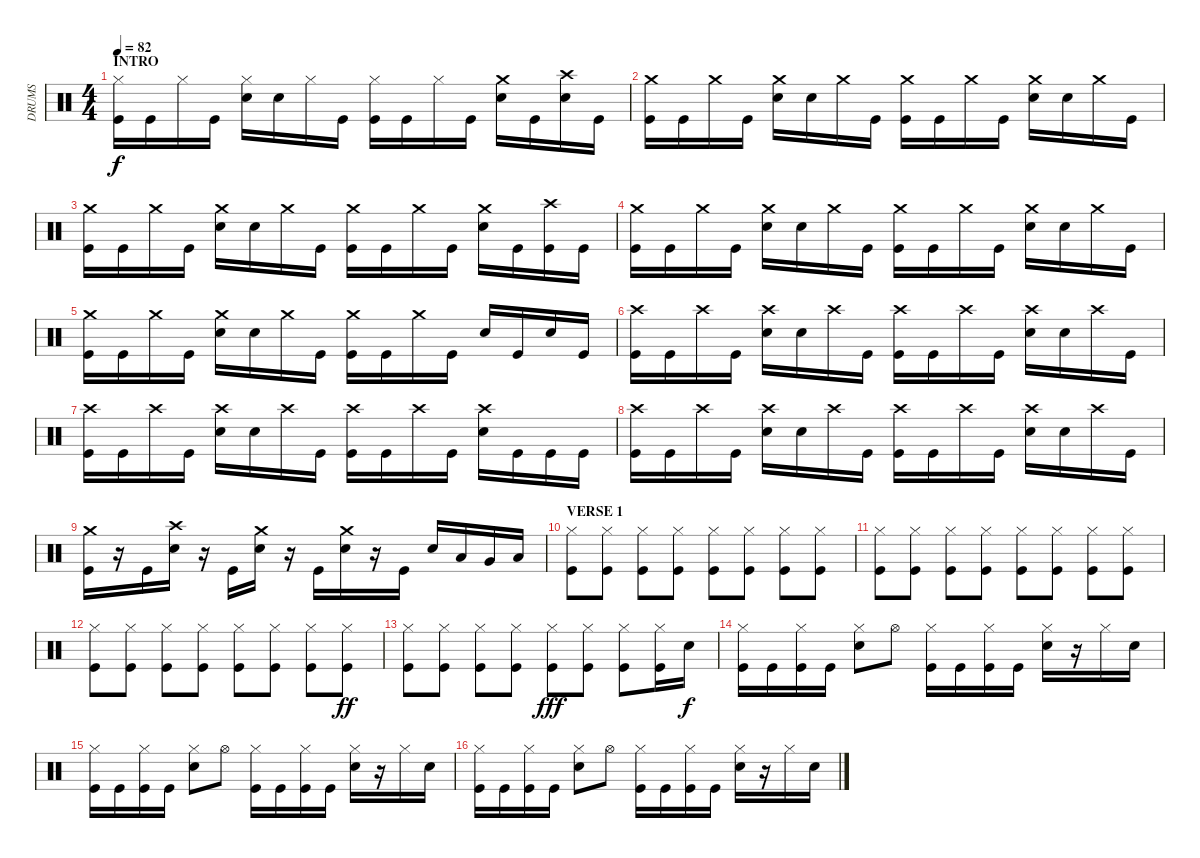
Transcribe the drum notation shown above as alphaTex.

\track ("DRUMS" "DRUMS") {instrument percussion}
\staff {score}
\articulation defaults
\ts (4 4)
\section ("" "INTRO")
\tempo 82
\clef neutral
\ks c
("Hi-Hat (closed)" "Kick (hit)").16{dy f} "Kick (hit)".16 "Hi-Hat (closed)".16 "Kick (hit)".16 ("Hi-Hat (closed)" "Electric Snare (hit)").16 "Electric Snare (hit)".16 "Hi-Hat (closed)".16 "Kick (hit)".16 ("Hi-Hat (closed)" "Kick (hit)").16 "Kick (hit)".16 "Hi-Hat (closed)".16 "Kick (hit)".16 ("Crash medium (hit)" "Electric Snare (hit)").16 "Kick (hit)".16 ("Crash high (hit)" "Electric Snare (hit)").16 "Kick (hit)".16 |
("Crash medium (hit)" "Kick (hit)").16 "Kick (hit)".16 "Crash medium (hit)".16 "Kick (hit)".16 ("Crash medium (hit)" "Electric Snare (hit)").16 "Electric Snare (hit)".16 "Crash medium (hit)".16 "Kick (hit)".16 ("Crash medium (hit)" "Kick (hit)").16 "Kick (hit)".16 "Crash medium (hit)".16 "Kick (hit)".16 ("Crash medium (hit)" "Electric Snare (hit)").16 "Electric Snare (hit)".16 "Crash medium (hit)".16 "Kick (hit)".16 |
("Crash medium (hit)" "Kick (hit)").16 "Kick (hit)".16 "Crash medium (hit)".16 "Kick (hit)".16 ("Crash medium (hit)" "Electric Snare (hit)").16 "Electric Snare (hit)".16 "Crash medium (hit)".16 "Kick (hit)".16 ("Crash medium (hit)" "Kick (hit)").16 "Kick (hit)".16 "Crash medium (hit)".16 "Kick (hit)".16 ("Crash medium (hit)" "Electric Snare (hit)").16 "Kick (hit)".16 ("Crash high (hit)" "Kick (hit)").16 "Kick (hit)".16 |
("Crash medium (hit)" "Kick (hit)").16 "Kick (hit)".16 "Crash medium (hit)".16 "Kick (hit)".16 ("Crash medium (hit)" "Electric Snare (hit)").16 "Electric Snare (hit)".16 "Crash medium (hit)".16 "Kick (hit)".16 ("Crash medium (hit)" "Kick (hit)").16 "Kick (hit)".16 "Crash medium (hit)".16 "Kick (hit)".16 ("Crash medium (hit)" "Electric Snare (hit)").16 "Electric Snare (hit)".16 "Crash medium (hit)".16 "Kick (hit)".16 |
("Crash medium (hit)" "Kick (hit)").16 "Kick (hit)".16 "Crash medium (hit)".16 "Kick (hit)".16 ("Crash medium (hit)" "Electric Snare (hit)").16 "Electric Snare (hit)".16 "Crash medium (hit)".16 "Kick (hit)".16 ("Crash medium (hit)" "Kick (hit)").16 "Kick (hit)".16 "Crash medium (hit)".16 "Kick (hit)".16 "Electric Snare (hit)".16 "Kick (hit)".16 "Electric Snare (hit)".16 "Kick (hit)".16 |
("Crash high (hit)" "Kick (hit)").16 "Kick (hit)".16 "Crash high (hit)".16 "Kick (hit)".16 ("Crash high (hit)" "Electric Snare (hit)").16 "Electric Snare (hit)".16 "Crash high (hit)".16 "Kick (hit)".16 ("Crash high (hit)" "Kick (hit)").16 "Kick (hit)".16 "Crash high (hit)".16 "Kick (hit)".16 ("Crash high (hit)" "Electric Snare (hit)").16 "Electric Snare (hit)".16 "Crash high (hit)".16 "Kick (hit)".16 |
("Crash high (hit)" "Kick (hit)").16 "Kick (hit)".16 "Crash high (hit)".16 "Kick (hit)".16 ("Crash high (hit)" "Electric Snare (hit)").16 "Electric Snare (hit)".16 "Crash high (hit)".16 "Kick (hit)".16 ("Crash high (hit)" "Kick (hit)").16 "Kick (hit)".16 "Crash high (hit)".16 "Kick (hit)".16 ("Crash high (hit)" "Electric Snare (hit)").16 "Kick (hit)".16 "Kick (hit)".16 "Kick (hit)".16 |
("Crash high (hit)" "Kick (hit)").16 "Kick (hit)".16 "Crash high (hit)".16 "Kick (hit)".16 ("Crash high (hit)" "Electric Snare (hit)").16 "Electric Snare (hit)".16 "Crash high (hit)".16 "Kick (hit)".16 ("Crash high (hit)" "Kick (hit)").16 "Kick (hit)".16 "Crash high (hit)".16 "Kick (hit)".16 ("Crash high (hit)" "Electric Snare (hit)").16 "Electric Snare (hit)".16 "Crash high (hit)".16 "Kick (hit)".16 |
("Crash medium (hit)" "Kick (hit)").16 r.16 "Kick (hit)".16 ("Crash high (hit)" "Electric Snare (hit)").16 r.16 "Kick (hit)".16 ("Crash medium (hit)" "Electric Snare (hit)").16 r.16 "Kick (hit)".16 ("Crash medium (hit)" "Electric Snare (hit)").16 r.16 "Kick (hit)".16 "Electric Snare (hit)".16 "Low Tom (hit)".16 "Very Low Tom (hit)".16 "Low Floor Tom (hit)".16 |
\section ("" "VERSE 1")
("Hi-Hat (closed)" "Kick (hit)").8 ("Hi-Hat (closed)" "Kick (hit)").8 ("Hi-Hat (closed)" "Kick (hit)").8 ("Hi-Hat (closed)" "Kick (hit)").8 ("Hi-Hat (closed)" "Kick (hit)").8 ("Hi-Hat (closed)" "Kick (hit)").8 ("Hi-Hat (closed)" "Kick (hit)").8 ("Hi-Hat (closed)" "Kick (hit)").8 |
("Hi-Hat (closed)" "Kick (hit)").8 ("Hi-Hat (closed)" "Kick (hit)").8 ("Hi-Hat (closed)" "Kick (hit)").8 ("Hi-Hat (closed)" "Kick (hit)").8 ("Hi-Hat (closed)" "Kick (hit)").8 ("Hi-Hat (closed)" "Kick (hit)").8 ("Hi-Hat (closed)" "Kick (hit)").8 ("Hi-Hat (closed)" "Kick (hit)").8 |
("Hi-Hat (closed)" "Kick (hit)").8{volume 16} ("Hi-Hat (closed)" "Kick (hit)").8 ("Hi-Hat (closed)" "Kick (hit)").8 ("Hi-Hat (closed)" "Kick (hit)").8 ("Hi-Hat (closed)" "Kick (hit)").8 ("Hi-Hat (closed)" "Kick (hit)").8 ("Hi-Hat (closed)" "Kick (hit)").8 ("Hi-Hat (closed)" "Kick (hit)").8{dy ff} |
("Hi-Hat (closed)" "Kick (hit)").8 ("Hi-Hat (closed)" "Kick (hit)").8 ("Hi-Hat (closed)" "Kick (hit)").8 ("Hi-Hat (closed)" "Kick (hit)").8 ("Hi-Hat (closed)" "Kick (hit)").8{dy fff} ("Hi-Hat (closed)" "Kick (hit)").8 ("Hi-Hat (closed)" "Kick (hit)").8 ("Hi-Hat (closed)" "Kick (hit)").16 "Electric Snare (hit)".16{dy f} |
("Hi-Hat (closed)" "Kick (hit)").16{volume 13} "Kick (hit)".16 ("Hi-Hat (closed)" "Kick (hit)").16 "Kick (hit)".16 ("Hi-Hat (closed)" "Electric Snare (hit)").8 "Hi-Hat (open)".8 ("Hi-Hat (closed)" "Kick (hit)").16 "Kick (hit)".16 ("Hi-Hat (closed)" "Kick (hit)").16 "Kick (hit)".16 ("Hi-Hat (closed)" "Electric Snare (hit)").16 r.16 "Hi-Hat (closed)".16 "Electric Snare (hit)".16 |
("Hi-Hat (closed)" "Kick (hit)").16 "Kick (hit)".16 ("Hi-Hat (closed)" "Kick (hit)").16 "Kick (hit)".16 ("Hi-Hat (closed)" "Electric Snare (hit)").8 "Hi-Hat (open)".8 ("Hi-Hat (closed)" "Kick (hit)").16 "Kick (hit)".16 ("Hi-Hat (closed)" "Kick (hit)").16 "Kick (hit)".16 ("Hi-Hat (closed)" "Electric Snare (hit)").16 r.16 "Hi-Hat (closed)".16 "Electric Snare (hit)".16 |
("Hi-Hat (closed)" "Kick (hit)").16 "Kick (hit)".16 ("Hi-Hat (closed)" "Kick (hit)").16 "Kick (hit)".16 ("Hi-Hat (closed)" "Electric Snare (hit)").8 "Hi-Hat (open)".8 ("Hi-Hat (closed)" "Kick (hit)").16 "Kick (hit)".16 ("Hi-Hat (closed)" "Kick (hit)").16 "Kick (hit)".16 ("Hi-Hat (closed)" "Electric Snare (hit)").16 r.16 "Hi-Hat (closed)".16 "Electric Snare (hit)".16
